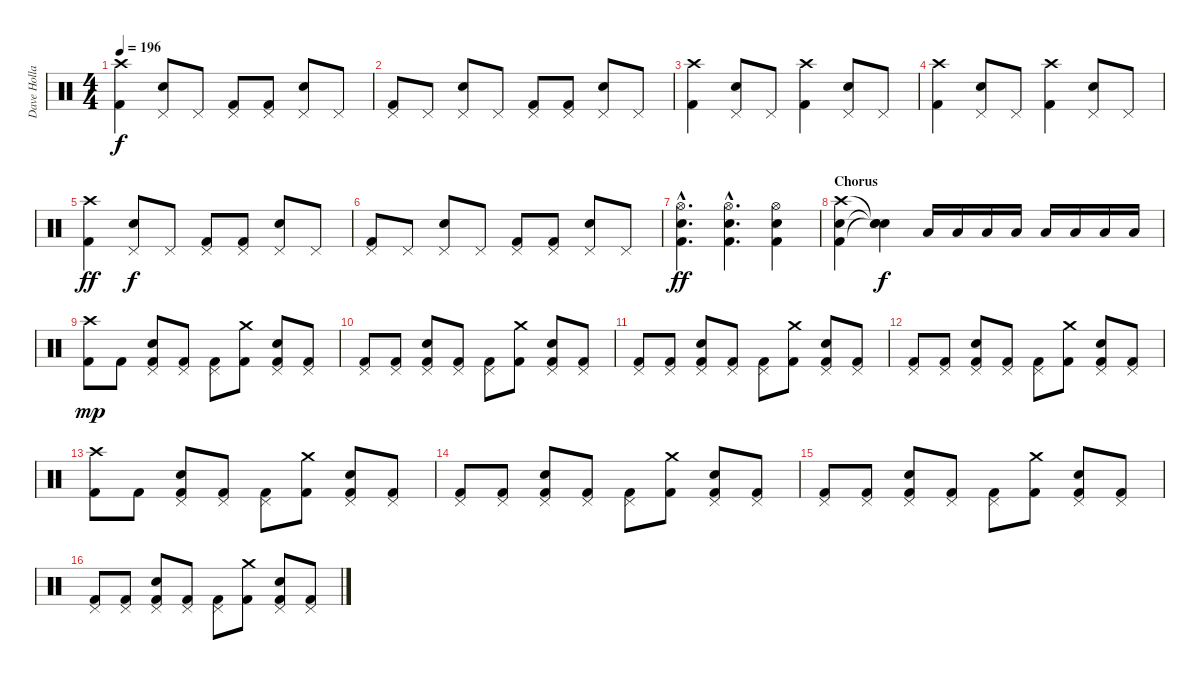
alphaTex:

\track ("Dave Holland" "Dave Holla") {instrument percussion}
\staff {score}
\articulation defaults
\ts (4 4)
\tempo 196
\clef neutral
\ks c
("Crash high (hit)" "Kick (hit) 2").4{dy f} ("Pedal Hi-Hat (hit)" "Snare (hit) 2").8 "Pedal Hi-Hat (hit)".8 ("Pedal Hi-Hat (hit)" "Kick (hit) 2").8 ("Pedal Hi-Hat (hit)" "Kick (hit) 2").8 ("Pedal Hi-Hat (hit)" "Snare (hit) 2").8 "Pedal Hi-Hat (hit)".8 |
("Pedal Hi-Hat (hit)" "Kick (hit) 2").8 "Pedal Hi-Hat (hit)".8 ("Pedal Hi-Hat (hit)" "Snare (hit) 2").8 "Pedal Hi-Hat (hit)".8 ("Pedal Hi-Hat (hit)" "Kick (hit) 2").8 ("Pedal Hi-Hat (hit)" "Kick (hit) 2").8 ("Pedal Hi-Hat (hit)" "Snare (hit) 2").8 "Pedal Hi-Hat (hit)".8 |
("Crash high (hit)" "Kick (hit) 2").4 ("Pedal Hi-Hat (hit)" "Snare (hit) 2").8 "Pedal Hi-Hat (hit)".8 ("Crash high (hit)" "Kick (hit) 2").4 ("Pedal Hi-Hat (hit)" "Snare (hit) 2").8 "Pedal Hi-Hat (hit)".8 |
("Crash high (hit)" "Kick (hit) 2").4 ("Pedal Hi-Hat (hit)" "Snare (hit) 2").8 "Pedal Hi-Hat (hit)".8 ("Crash high (hit)" "Kick (hit) 2").4 ("Pedal Hi-Hat (hit)" "Snare (hit) 2").8 "Pedal Hi-Hat (hit)".8 |
("Crash high (hit)" "Kick (hit) 2").4{dy ff} ("Pedal Hi-Hat (hit)" "Snare (hit) 2").8{dy f} "Pedal Hi-Hat (hit)".8 ("Pedal Hi-Hat (hit)" "Kick (hit) 2").8 ("Pedal Hi-Hat (hit)" "Kick (hit) 2").8 ("Pedal Hi-Hat (hit)" "Snare (hit) 2").8 "Pedal Hi-Hat (hit)".8 |
("Pedal Hi-Hat (hit)" "Kick (hit) 2").8 "Pedal Hi-Hat (hit)".8 ("Pedal Hi-Hat (hit)" "Snare (hit) 2").8 "Pedal Hi-Hat (hit)".8 ("Pedal Hi-Hat (hit)" "Kick (hit) 2").8 ("Pedal Hi-Hat (hit)" "Kick (hit) 2").8 ("Pedal Hi-Hat (hit)" "Snare (hit) 2").8 "Pedal Hi-Hat (hit)".8 |
("Hi-Hat (open)"{hac} "Snare (hit) 2"{hac} "Kick (hit) 2"{hac}).4{d dy ff} ("Hi-Hat (open)"{hac} "Snare (hit) 2"{hac} "Kick (hit) 2"{hac}).4{d} ("Hi-Hat (open)" "Snare (hit) 2" "Kick (hit) 2").4 |
\section ("" "Chorus")
("Crash high (hit)" "Electric Snare (hit)" "Kick (hit) 2").4 ("Snare (hit)"{t} "Snare (hit)"{t} "Snare (hit)"{t}).4{dy f} "Low Tom (hit)".16 "Low Tom (hit)".16 "Low Tom (hit)".16 "Low Tom (hit)".16 "Low Tom (hit)".16 "Low Tom (hit)".16 "Low Tom (hit)".16 "Low Tom (hit)".16 |
("Crash high (hit)" "Kick (hit) 2").8{dy mp} "Kick (hit) 2".8 ("Pedal Hi-Hat (hit)" "Snare (hit) 2" "Kick (hit) 2").8 ("Pedal Hi-Hat (hit)" "Kick (hit) 2").8 ("Pedal Hi-Hat (hit)" "Kick (hit) 2").8 ("Crash medium (hit)" "Kick (hit) 2").8 ("Pedal Hi-Hat (hit)" "Snare (hit) 2" "Kick (hit) 2").8 ("Pedal Hi-Hat (hit)" "Kick (hit) 2").8 |
("Pedal Hi-Hat (hit)" "Kick (hit) 2").8 ("Pedal Hi-Hat (hit)" "Kick (hit) 2").8 ("Pedal Hi-Hat (hit)" "Snare (hit) 2" "Kick (hit) 2").8 ("Pedal Hi-Hat (hit)" "Kick (hit) 2").8 ("Pedal Hi-Hat (hit)" "Kick (hit) 2").8 ("Crash medium (hit)" "Kick (hit) 2").8 ("Pedal Hi-Hat (hit)" "Snare (hit) 2" "Kick (hit) 2").8 ("Pedal Hi-Hat (hit)" "Kick (hit) 2").8 |
("Pedal Hi-Hat (hit)" "Kick (hit) 2").8 ("Pedal Hi-Hat (hit)" "Kick (hit) 2").8 ("Pedal Hi-Hat (hit)" "Snare (hit) 2" "Kick (hit) 2").8 ("Pedal Hi-Hat (hit)" "Kick (hit) 2").8 ("Pedal Hi-Hat (hit)" "Kick (hit) 2").8 ("Crash medium (hit)" "Kick (hit) 2").8 ("Pedal Hi-Hat (hit)" "Snare (hit) 2" "Kick (hit) 2").8 ("Pedal Hi-Hat (hit)" "Kick (hit) 2").8 |
("Pedal Hi-Hat (hit)" "Kick (hit) 2").8 ("Pedal Hi-Hat (hit)" "Kick (hit) 2").8 ("Pedal Hi-Hat (hit)" "Snare (hit) 2" "Kick (hit) 2").8 ("Pedal Hi-Hat (hit)" "Kick (hit) 2").8 ("Pedal Hi-Hat (hit)" "Kick (hit) 2").8 ("Crash medium (hit)" "Kick (hit) 2").8 ("Pedal Hi-Hat (hit)" "Snare (hit) 2" "Kick (hit) 2").8 ("Pedal Hi-Hat (hit)" "Kick (hit) 2").8 |
("Crash high (hit)" "Kick (hit) 2").8 "Kick (hit) 2".8 ("Pedal Hi-Hat (hit)" "Snare (hit) 2" "Kick (hit) 2").8 ("Pedal Hi-Hat (hit)" "Kick (hit) 2").8 ("Pedal Hi-Hat (hit)" "Kick (hit) 2").8 ("Crash medium (hit)" "Kick (hit) 2").8 ("Pedal Hi-Hat (hit)" "Snare (hit) 2" "Kick (hit) 2").8 ("Pedal Hi-Hat (hit)" "Kick (hit) 2").8 |
("Pedal Hi-Hat (hit)" "Kick (hit) 2").8 ("Pedal Hi-Hat (hit)" "Kick (hit) 2").8 ("Pedal Hi-Hat (hit)" "Snare (hit) 2" "Kick (hit) 2").8 ("Pedal Hi-Hat (hit)" "Kick (hit) 2").8 ("Pedal Hi-Hat (hit)" "Kick (hit) 2").8 ("Crash medium (hit)" "Kick (hit) 2").8 ("Pedal Hi-Hat (hit)" "Snare (hit) 2" "Kick (hit) 2").8 ("Pedal Hi-Hat (hit)" "Kick (hit) 2").8 |
("Pedal Hi-Hat (hit)" "Kick (hit) 2").8 ("Pedal Hi-Hat (hit)" "Kick (hit) 2").8 ("Pedal Hi-Hat (hit)" "Snare (hit) 2" "Kick (hit) 2").8 ("Pedal Hi-Hat (hit)" "Kick (hit) 2").8 ("Pedal Hi-Hat (hit)" "Kick (hit) 2").8 ("Crash medium (hit)" "Kick (hit) 2").8 ("Pedal Hi-Hat (hit)" "Snare (hit) 2" "Kick (hit) 2").8 ("Pedal Hi-Hat (hit)" "Kick (hit) 2").8 |
("Pedal Hi-Hat (hit)" "Kick (hit) 2").8 ("Pedal Hi-Hat (hit)" "Kick (hit) 2").8 ("Pedal Hi-Hat (hit)" "Snare (hit) 2" "Kick (hit) 2").8 ("Pedal Hi-Hat (hit)" "Kick (hit) 2").8 ("Pedal Hi-Hat (hit)" "Kick (hit) 2").8 ("Crash medium (hit)" "Kick (hit) 2").8 ("Pedal Hi-Hat (hit)" "Snare (hit) 2" "Kick (hit) 2").8 ("Pedal Hi-Hat (hit)" "Kick (hit) 2").8
